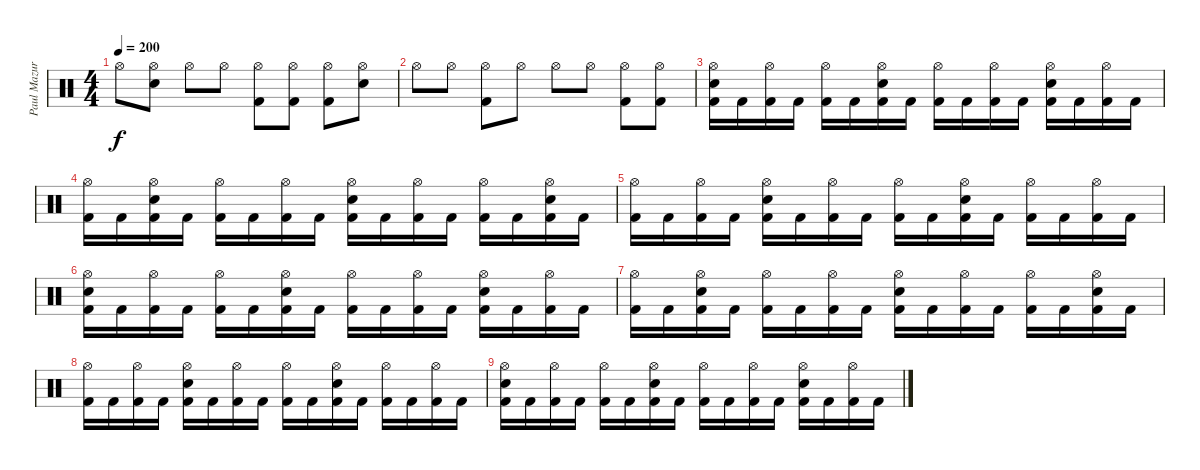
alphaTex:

\track ("Paul Mazurkiewicz" "Paul Mazur") {instrument percussion}
\staff {score}
\articulation defaults
\ts (4 4)
\tempo 200
\clef neutral
\ks c "Hi-Hat (open)".8{dy f}
("Hi-Hat (open)" "Electric Snare (hit)").8 "Hi-Hat (open)".8 "Hi-Hat (open)".8 ("Hi-Hat (open)" "Kick (hit) 2").8 ("Hi-Hat (open)" "Kick (hit) 2").8 ("Hi-Hat (open)" "Kick (hit) 2").8 ("Hi-Hat (open)" "Electric Snare (hit)").8 |
"Hi-Hat (open)".8 "Hi-Hat (open)".8 ("Hi-Hat (open)" "Kick (hit) 2").8 "Hi-Hat (open)".8 "Hi-Hat (open)".8 "Hi-Hat (open)".8 ("Hi-Hat (open)" "Kick (hit) 2").8 ("Hi-Hat (open)" "Kick (hit) 2").8 |
("Hi-Hat (open)" "Electric Snare (hit)" "Kick (hit) 2").16 "Kick (hit) 2".16 ("Hi-Hat (open)" "Kick (hit) 2").16 "Kick (hit) 2".16 ("Hi-Hat (open)" "Kick (hit) 2").16 "Kick (hit) 2".16 ("Hi-Hat (open)" "Electric Snare (hit)" "Kick (hit) 2").16 "Kick (hit) 2".16 ("Hi-Hat (open)" "Kick (hit) 2").16 "Kick (hit) 2".16 ("Hi-Hat (open)" "Kick (hit) 2").16 "Kick (hit) 2".16 ("Hi-Hat (open)" "Electric Snare (hit)" "Kick (hit) 2").16 "Kick (hit) 2".16 ("Hi-Hat (open)" "Kick (hit) 2").16 "Kick (hit) 2".16 |
("Hi-Hat (open)" "Kick (hit) 2").16 "Kick (hit) 2".16 ("Hi-Hat (open)" "Electric Snare (hit)" "Kick (hit) 2").16 "Kick (hit) 2".16 ("Hi-Hat (open)" "Kick (hit) 2").16 "Kick (hit) 2".16 ("Hi-Hat (open)" "Kick (hit) 2").16 "Kick (hit) 2".16 ("Hi-Hat (open)" "Electric Snare (hit)" "Kick (hit) 2").16 "Kick (hit) 2".16 ("Hi-Hat (open)" "Kick (hit) 2").16 "Kick (hit) 2".16 ("Hi-Hat (open)" "Kick (hit) 2").16 "Kick (hit) 2".16 ("Hi-Hat (open)" "Electric Snare (hit)" "Kick (hit) 2").16 "Kick (hit) 2".16 |
("Hi-Hat (open)" "Kick (hit) 2").16 "Kick (hit) 2".16 ("Hi-Hat (open)" "Kick (hit) 2").16 "Kick (hit) 2".16 ("Hi-Hat (open)" "Electric Snare (hit)" "Kick (hit) 2").16 "Kick (hit) 2".16 ("Hi-Hat (open)" "Kick (hit) 2").16 "Kick (hit) 2".16 ("Hi-Hat (open)" "Kick (hit) 2").16 "Kick (hit) 2".16 ("Hi-Hat (open)" "Electric Snare (hit)" "Kick (hit) 2").16 "Kick (hit) 2".16 ("Hi-Hat (open)" "Kick (hit) 2").16 "Kick (hit) 2".16 ("Hi-Hat (open)" "Kick (hit) 2").16 "Kick (hit) 2".16 |
("Hi-Hat (open)" "Electric Snare (hit)" "Kick (hit) 2").16 "Kick (hit) 2".16 ("Hi-Hat (open)" "Kick (hit) 2").16 "Kick (hit) 2".16 ("Hi-Hat (open)" "Kick (hit) 2").16 "Kick (hit) 2".16 ("Hi-Hat (open)" "Electric Snare (hit)" "Kick (hit) 2").16 "Kick (hit) 2".16 ("Hi-Hat (open)" "Kick (hit) 2").16 "Kick (hit) 2".16 ("Hi-Hat (open)" "Kick (hit) 2").16 "Kick (hit) 2".16 ("Hi-Hat (open)" "Electric Snare (hit)" "Kick (hit) 2").16 "Kick (hit) 2".16 ("Hi-Hat (open)" "Kick (hit) 2").16 "Kick (hit) 2".16 |
("Hi-Hat (open)" "Kick (hit) 2").16 "Kick (hit) 2".16 ("Hi-Hat (open)" "Electric Snare (hit)" "Kick (hit) 2").16 "Kick (hit) 2".16 ("Hi-Hat (open)" "Kick (hit) 2").16 "Kick (hit) 2".16 ("Hi-Hat (open)" "Kick (hit) 2").16 "Kick (hit) 2".16 ("Hi-Hat (open)" "Electric Snare (hit)" "Kick (hit) 2").16 "Kick (hit) 2".16 ("Hi-Hat (open)" "Kick (hit) 2").16 "Kick (hit) 2".16 ("Hi-Hat (open)" "Kick (hit) 2").16 "Kick (hit) 2".16 ("Hi-Hat (open)" "Electric Snare (hit)" "Kick (hit) 2").16 "Kick (hit) 2".16 |
("Hi-Hat (open)" "Kick (hit) 2").16 "Kick (hit) 2".16 ("Hi-Hat (open)" "Kick (hit) 2").16 "Kick (hit) 2".16 ("Hi-Hat (open)" "Electric Snare (hit)" "Kick (hit) 2").16 "Kick (hit) 2".16 ("Hi-Hat (open)" "Kick (hit) 2").16 "Kick (hit) 2".16 ("Hi-Hat (open)" "Kick (hit) 2").16 "Kick (hit) 2".16 ("Hi-Hat (open)" "Electric Snare (hit)" "Kick (hit) 2").16 "Kick (hit) 2".16 ("Hi-Hat (open)" "Kick (hit) 2").16 "Kick (hit) 2".16 ("Hi-Hat (open)" "Kick (hit) 2").16 "Kick (hit) 2".16 |
("Hi-Hat (open)" "Electric Snare (hit)" "Kick (hit) 2").16 "Kick (hit) 2".16 ("Hi-Hat (open)" "Kick (hit) 2").16 "Kick (hit) 2".16 ("Hi-Hat (open)" "Kick (hit) 2").16 "Kick (hit) 2".16 ("Hi-Hat (open)" "Electric Snare (hit)" "Kick (hit) 2").16 "Kick (hit) 2".16 ("Hi-Hat (open)" "Kick (hit) 2").16 "Kick (hit) 2".16 ("Hi-Hat (open)" "Kick (hit) 2").16 "Kick (hit) 2".16 ("Hi-Hat (open)" "Electric Snare (hit)" "Kick (hit) 2").16 "Kick (hit) 2".16 ("Hi-Hat (open)" "Kick (hit) 2").16 "Kick (hit) 2".16
